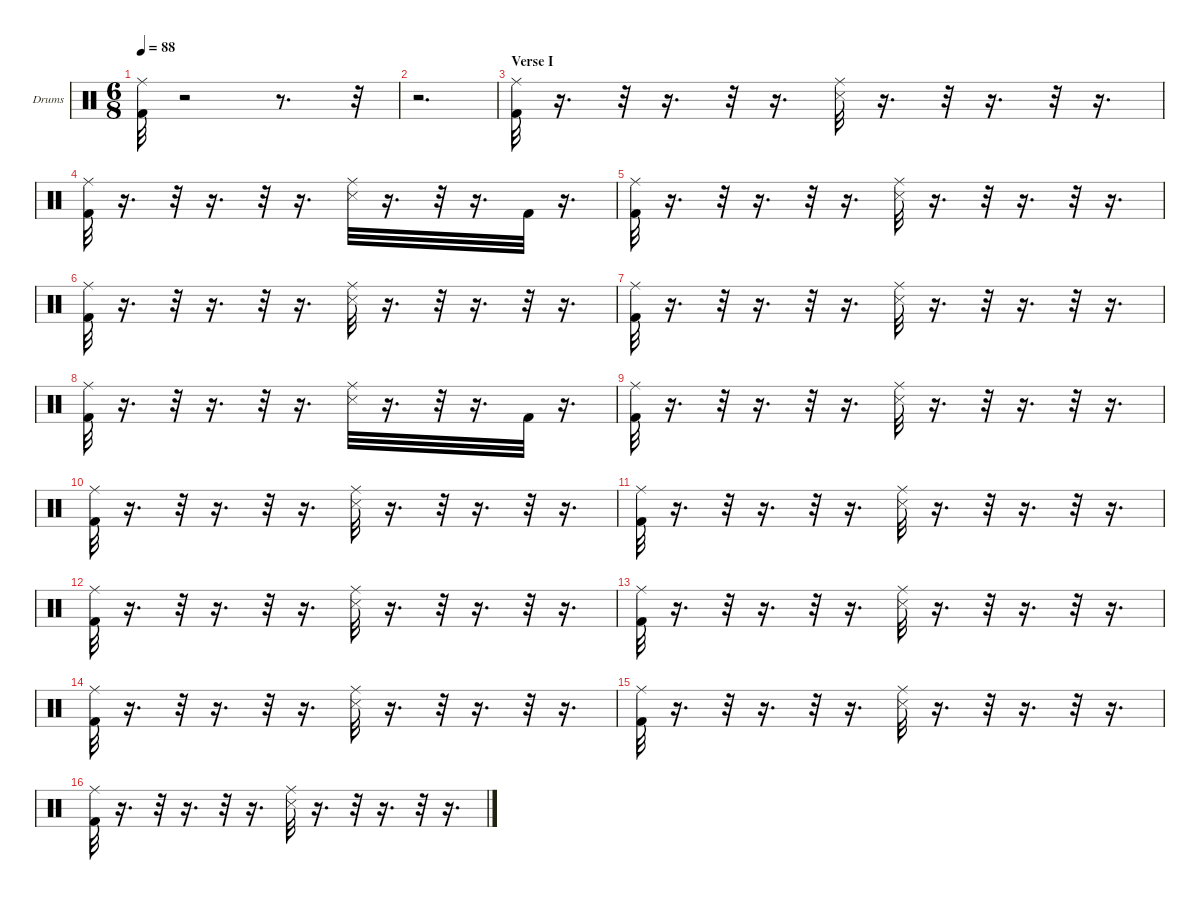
\hideDynamics
\bracketExtendMode nobrackets
\firstSystemTrackNameOrientation horizontal
\otherSystemsTrackNameOrientation horizontal
\track ("Drumkit" "Drums") {instrument percussion}
\staff {score}
\articulation defaults
\ts (6 8)
\tempo 88
\clef neutral
\ks c
("Kick (hit) 2" "Ride (middle)").32{dy fff} r.2 r.8{d} r.32 |
r.2{d} |
\section ("" "Verse I")
("Kick (hit) 2" "Ride (middle)").32 r.16{d} r.32 r.16{d} r.32 r.16{d} ("Snare (side stick) 3" "Ride (middle)").32{dy ff} r.16{d} r.32 r.16{d} r.32 r.16{d} |
("Kick (hit) 2" "Ride (middle)").32{dy fff} r.16{d} r.32 r.16{d} r.32 r.16{d} ("Snare (side stick) 3" "Ride (middle)").32{dy ff} r.16{d} r.32 r.16{d} "Kick (hit) 2".32{dy f} r.16{d} |
("Kick (hit) 2" "Ride (middle)").32{dy fff} r.16{d} r.32 r.16{d} r.32 r.16{d} ("Snare (side stick) 3" "Ride (middle)").32{dy ff} r.16{d} r.32 r.16{d} r.32 r.16{d} |
("Kick (hit) 2" "Ride (middle)").32{dy fff} r.16{d} r.32 r.16{d} r.32 r.16{d} ("Snare (side stick) 3" "Ride (middle)").32{dy ff} r.16{d} r.32 r.16{d} r.32 r.16{d} |
("Kick (hit) 2" "Ride (middle)").32{dy fff} r.16{d} r.32 r.16{d} r.32 r.16{d} ("Snare (side stick) 3" "Ride (middle)").32{dy ff} r.16{d} r.32 r.16{d} r.32 r.16{d} |
("Kick (hit) 2" "Ride (middle)").32{dy fff} r.16{d} r.32 r.16{d} r.32 r.16{d} ("Snare (side stick) 3" "Ride (middle)").32{dy ff} r.16{d} r.32 r.16{d} "Kick (hit) 2".32{dy f} r.16{d} |
("Kick (hit) 2" "Ride (middle)").32{dy fff} r.16{d} r.32 r.16{d} r.32 r.16{d} ("Snare (side stick) 3" "Ride (middle)").32{dy ff} r.16{d} r.32 r.16{d} r.32 r.16{d} |
("Kick (hit) 2" "Ride (middle)").32{dy fff} r.16{d} r.32 r.16{d} r.32 r.16{d} ("Snare (side stick) 3" "Ride (middle)").32{dy ff} r.16{d} r.32 r.16{d} r.32 r.16{d} |
("Kick (hit) 2" "Ride (middle)").32{dy fff} r.16{d} r.32 r.16{d} r.32 r.16{d} ("Snare (side stick) 3" "Ride (middle)").32{dy ff} r.16{d} r.32 r.16{d} r.32 r.16{d} |
("Kick (hit) 2" "Ride (middle)").32{dy fff} r.16{d} r.32 r.16{d} r.32 r.16{d} ("Snare (side stick) 3" "Ride (middle)").32{dy ff} r.16{d} r.32 r.16{d} r.32 r.16{d} |
("Kick (hit) 2" "Ride (middle)").32{dy fff} r.16{d} r.32 r.16{d} r.32 r.16{d} ("Snare (side stick) 3" "Ride (middle)").32{dy ff} r.16{d} r.32 r.16{d} r.32 r.16{d} |
("Kick (hit) 2" "Ride (middle)").32{dy fff} r.16{d} r.32 r.16{d} r.32 r.16{d} ("Snare (side stick) 3" "Ride (middle)").32{dy ff} r.16{d} r.32 r.16{d} r.32 r.16{d} |
("Kick (hit) 2" "Ride (middle)").32{dy fff} r.16{d} r.32 r.16{d} r.32 r.16{d} ("Snare (side stick) 3" "Ride (middle)").32{dy ff} r.16{d} r.32 r.16{d} r.32 r.16{d} |
("Kick (hit) 2" "Ride (middle)").32{dy fff} r.16{d} r.32 r.16{d} r.32 r.16{d} ("Snare (side stick) 3" "Ride (middle)").32{dy ff} r.16{d} r.32 r.16{d} r.32 r.16{d}
